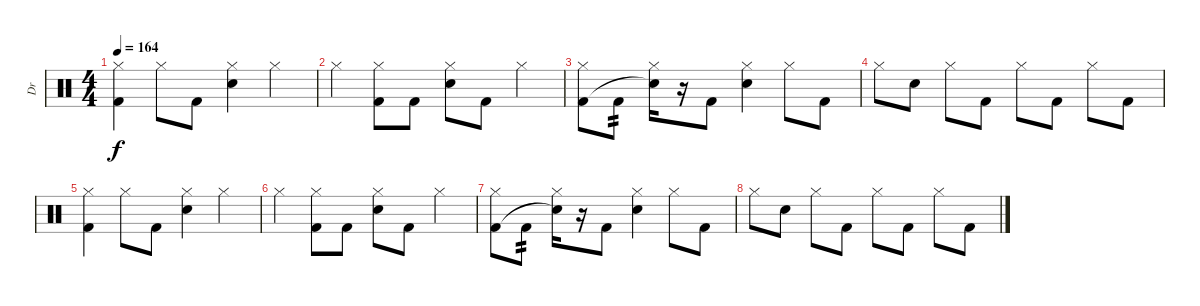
\track ("Dr" "Dr") {instrument percussion}
\staff {score}
\articulation defaults
\ts (4 4)
\tempo 164
\clef neutral
\ks c
("Hi-Hat (closed)" "Kick (hit) 2").4{dy f} "Hi-Hat (closed)".8 "Kick (hit) 2".8 ("Hi-Hat (closed)" "Electric Snare (hit)").4 "Hi-Hat (closed)".4 |
"Hi-Hat (closed)".4 ("Hi-Hat (closed)" "Kick (hit) 2").8 "Kick (hit) 2".8 ("Hi-Hat (closed)" "Electric Snare (hit)").8 "Kick (hit) 2".8 "Hi-Hat (closed)".4 |
("Hi-Hat (closed)" "Kick (hit) 2").8 "Kick (hit) 2".8{tp 2} ("Hi-Hat (closed)" "Snare (hit)"{t}).16 r.16 "Kick (hit) 2".8 ("Hi-Hat (closed)" "Electric Snare (hit)").4 "Hi-Hat (closed)".8 "Kick (hit) 2".8 |
"Hi-Hat (closed)".8 "Electric Snare (hit)".8 "Hi-Hat (closed)".8 "Kick (hit) 2".8 "Hi-Hat (closed)".8 "Kick (hit) 2".8 "Hi-Hat (closed)".8 "Kick (hit) 2".8 |
("Hi-Hat (closed)" "Kick (hit) 2").4 "Hi-Hat (closed)".8 "Kick (hit) 2".8 ("Hi-Hat (closed)" "Electric Snare (hit)").4 "Hi-Hat (closed)".4 |
"Hi-Hat (closed)".4 ("Hi-Hat (closed)" "Kick (hit) 2").8 "Kick (hit) 2".8 ("Hi-Hat (closed)" "Electric Snare (hit)").8 "Kick (hit) 2".8 "Hi-Hat (closed)".4 |
("Hi-Hat (closed)" "Kick (hit) 2").8 "Kick (hit) 2".8{tp 2} ("Hi-Hat (closed)" "Snare (hit)"{t}).16 r.16 "Kick (hit) 2".8 ("Hi-Hat (closed)" "Electric Snare (hit)").4 "Hi-Hat (closed)".8 "Kick (hit) 2".8 |
"Hi-Hat (closed)".8 "Electric Snare (hit)".8 "Hi-Hat (closed)".8 "Kick (hit) 2".8 "Hi-Hat (closed)".8 "Kick (hit) 2".8 "Hi-Hat (closed)".8 "Kick (hit) 2".8
